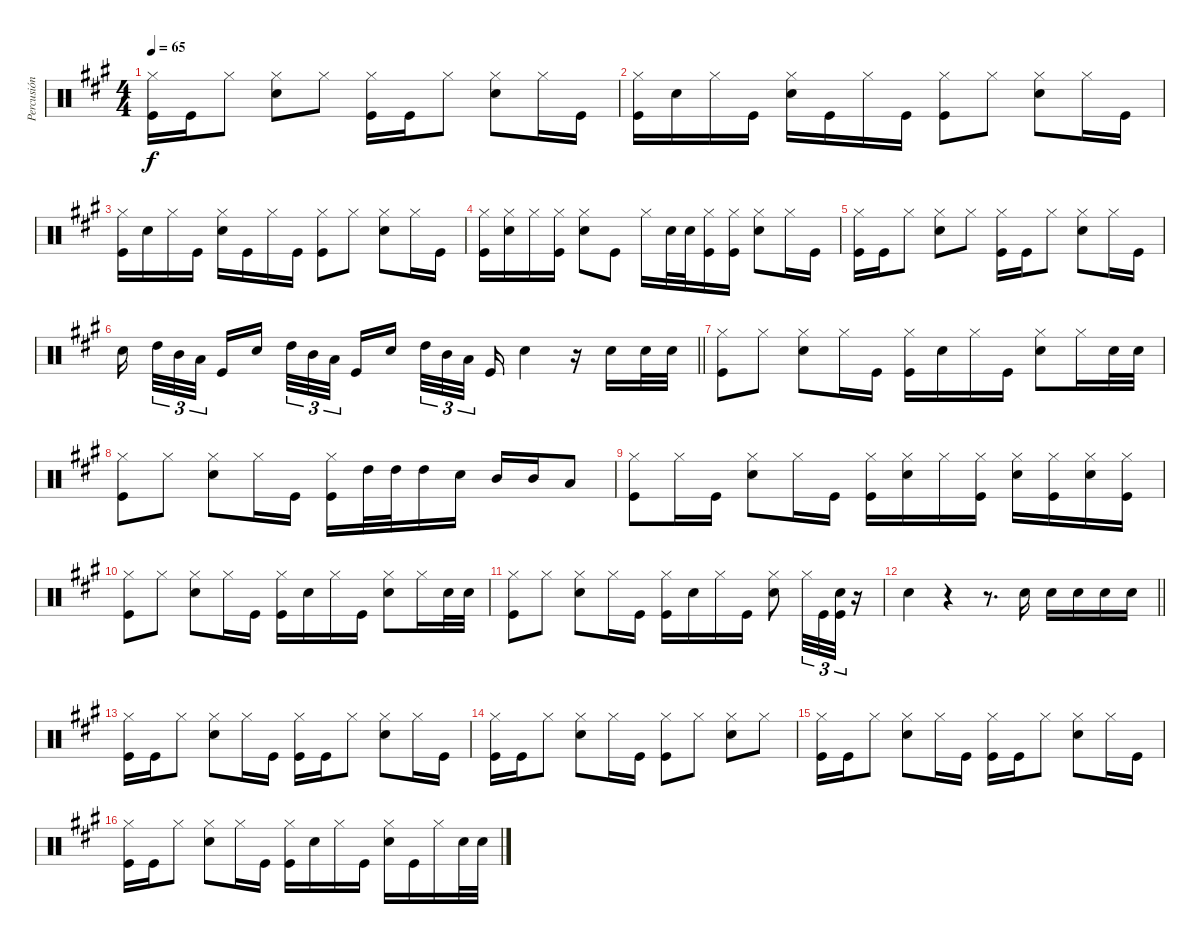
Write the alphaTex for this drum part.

\track ("Percusión" "Percusión") {instrument percussion}
\staff {score}
\articulation defaults
\ts (4 4)
\tempo 65
\clef neutral
\ks f#minor
("Hi-Hat (closed)" "Kick (hit)").16{dy f} "Kick (hit)".16 "Hi-Hat (closed)".8 ("Hi-Hat (closed)" "Snare (hit) 2").8 "Hi-Hat (closed)".8 ("Hi-Hat (closed)" "Kick (hit)").16 "Kick (hit)".16 "Hi-Hat (closed)".8 ("Hi-Hat (closed)" "Snare (hit) 2").8 "Hi-Hat (closed)".16 "Kick (hit)".16 |
("Hi-Hat (closed)" "Kick (hit)").16 "Snare (hit) 2".16 "Hi-Hat (closed)".16 "Kick (hit)".16 ("Hi-Hat (closed)" "Snare (hit) 2").16 "Kick (hit)".16 "Hi-Hat (closed)".16 "Kick (hit)".16 ("Hi-Hat (closed)" "Kick (hit)").8 "Hi-Hat (closed)".8 ("Hi-Hat (closed)" "Snare (hit) 2").8 "Hi-Hat (closed)".16 "Kick (hit)".16 |
("Hi-Hat (closed)" "Kick (hit)").16 "Snare (hit) 2".16 "Hi-Hat (closed)".16 "Kick (hit)".16 ("Hi-Hat (closed)" "Snare (hit) 2").16 "Kick (hit)".16 "Hi-Hat (closed)".16 "Kick (hit)".16 ("Hi-Hat (closed)" "Kick (hit)").8 "Hi-Hat (closed)".8 ("Hi-Hat (closed)" "Snare (hit) 2").8 "Hi-Hat (closed)".16 "Kick (hit)".16 |
("Hi-Hat (closed)" "Kick (hit)").16 ("Hi-Hat (closed)" "Snare (hit) 2").16 "Hi-Hat (closed)".16 ("Hi-Hat (closed)" "Kick (hit)").16 ("Hi-Hat (closed)" "Snare (hit) 2").8 "Kick (hit)".8 "Hi-Hat (closed)".16 "Snare (hit) 2".32 "Snare (hit) 2".32 ("Hi-Hat (closed)" "Kick (hit)").16 ("Hi-Hat (closed)" "Kick (hit)").16 ("Hi-Hat (closed)" "Snare (hit) 2").8 "Hi-Hat (closed)".16 "Kick (hit)".16 |
("Hi-Hat (closed)" "Kick (hit)").16 "Kick (hit)".16 "Hi-Hat (closed)".8 ("Hi-Hat (closed)" "Snare (hit) 2").8 "Hi-Hat (closed)".8 ("Hi-Hat (closed)" "Kick (hit)").16 "Kick (hit)".16 "Hi-Hat (closed)".8 ("Hi-Hat (closed)" "Snare (hit) 2").8 "Hi-Hat (closed)".16 "Kick (hit)".16 |
\barLineRight lightlight "Snare (hit) 2".16{beam splitsecondary} "High Tom (hit)".32{tu (3 2)} "Mid Tom (hit)".32{tu (3 2)} "Low Tom (hit)".32{tu (3 2) beam splitsecondary} "Kick (hit)".16 "Snare (hit) 2".16 "High Tom (hit)".32{tu (3 2)} "Mid Tom (hit)".32{tu (3 2)} "Low Tom (hit)".32{tu (3 2) beam splitsecondary} "Kick (hit)".16 "Snare (hit) 2".16{beam splitsecondary} "High Tom (hit)".32{tu (3 2)} "Mid Tom (hit)".32{tu (3 2)} "Low Tom (hit)".32{tu (3 2)} "Kick (hit)".16 "Snare (hit) 2".4
r.16 "Snare (hit) 2".16 "Snare (hit) 2".32 "Snare (hit) 2".32 |
("Hi-Hat (closed)" "Kick (hit)").8 "Hi-Hat (closed)".8 ("Hi-Hat (closed)" "Snare (hit) 2").8 "Hi-Hat (closed)".16 "Kick (hit)".16 ("Hi-Hat (closed)" "Kick (hit)").16 "Snare (hit) 2".16 "Hi-Hat (closed)".16 "Kick (hit)".16 ("Hi-Hat (closed)" "Snare (hit) 2").8 "Hi-Hat (closed)".16 "Snare (hit) 2".32 "Snare (hit) 2".32 |
("Hi-Hat (closed)" "Kick (hit)").8 "Hi-Hat (closed)".8 ("Hi-Hat (closed)" "Snare (hit) 2").8 "Hi-Hat (closed)".16 "Kick (hit)".16 ("Hi-Hat (closed)" "Kick (hit)").16 "High Tom (hit)".32 "High Tom (hit)".32 "High Tom (hit)".16 "Snare (hit) 2".16 "Mid Tom (hit)".16 "Mid Tom (hit)".16 "Low Tom (hit)".8 |
("Hi-Hat (closed)" "Kick (hit)").8 "Hi-Hat (closed)".16 "Kick (hit)".16 ("Hi-Hat (closed)" "Snare (hit) 2").8 "Hi-Hat (closed)".16 "Kick (hit)".16 ("Hi-Hat (closed)" "Kick (hit)").16 ("Hi-Hat (closed)" "Snare (hit) 2").16 "Hi-Hat (closed)".16 ("Hi-Hat (closed)" "Kick (hit)").16 ("Hi-Hat (closed)" "Snare (hit) 2").16 ("Hi-Hat (closed)" "Kick (hit)").16 ("Hi-Hat (closed)" "Snare (hit) 2").16 ("Hi-Hat (closed)" "Kick (hit)").16 |
("Hi-Hat (closed)" "Kick (hit)").8 "Hi-Hat (closed)".8 ("Hi-Hat (closed)" "Snare (hit) 2").8 "Hi-Hat (closed)".16 "Kick (hit)".16 ("Hi-Hat (closed)" "Kick (hit)").16 "Snare (hit) 2".16 "Hi-Hat (closed)".16 "Kick (hit)".16 ("Hi-Hat (closed)" "Snare (hit) 2").8 "Hi-Hat (closed)".16 "Snare (hit) 2".32 "Snare (hit) 2".32 |
("Hi-Hat (closed)" "Kick (hit)").8 "Hi-Hat (closed)".8 ("Hi-Hat (closed)" "Snare (hit) 2").8 "Hi-Hat (closed)".16 "Kick (hit)".16 ("Hi-Hat (closed)" "Kick (hit)").16 "Snare (hit) 2".16 "Hi-Hat (closed)".16 "Kick (hit)".16 ("Hi-Hat (closed)" "Snare (hit) 2").8 "Hi-Hat (closed)".32{tu (3 2)} "Kick (hit)".32{tu (3 2)} ("Snare (hit) 2" "Kick (hit)").32{tu (3 2)} r.16 |
\barLineRight lightlight "Snare (hit) 2".4
r.4 r.8{d} "Snare (hit) 2".16 "Snare (hit) 2".16 "Snare (hit) 2".16 "Snare (hit) 2".16 "Snare (hit) 2".16 |
("Hi-Hat (closed)" "Kick (hit)").16 "Kick (hit)".16 "Hi-Hat (closed)".8 ("Hi-Hat (closed)" "Snare (hit) 2").8 "Hi-Hat (closed)".16 "Kick (hit)".16 ("Hi-Hat (closed)" "Kick (hit)").16 "Kick (hit)".16 "Hi-Hat (closed)".8 ("Hi-Hat (closed)" "Snare (hit) 2").8 "Hi-Hat (closed)".16 "Kick (hit)".16 |
("Hi-Hat (closed)" "Kick (hit)").16 "Kick (hit)".16 "Hi-Hat (closed)".8 ("Hi-Hat (closed)" "Snare (hit) 2").8 "Hi-Hat (closed)".16 "Kick (hit)".16 ("Hi-Hat (closed)" "Kick (hit)").8 "Hi-Hat (closed)".8 ("Hi-Hat (closed)" "Snare (hit) 2").8 "Hi-Hat (closed)".8 |
("Hi-Hat (closed)" "Kick (hit)").16 "Kick (hit)".16 "Hi-Hat (closed)".8 ("Hi-Hat (closed)" "Snare (hit) 2").8 "Hi-Hat (closed)".16 "Kick (hit)".16 ("Hi-Hat (closed)" "Kick (hit)").16 "Kick (hit)".16 "Hi-Hat (closed)".8 ("Hi-Hat (closed)" "Snare (hit) 2").8 "Hi-Hat (closed)".16 "Kick (hit)".16 |
("Hi-Hat (closed)" "Kick (hit)").16 "Kick (hit)".16 "Hi-Hat (closed)".8 ("Hi-Hat (closed)" "Snare (hit) 2").8 "Hi-Hat (closed)".16 "Kick (hit)".16 ("Hi-Hat (closed)" "Kick (hit)").16 "Snare (hit) 2".16 "Hi-Hat (closed)".16 "Kick (hit)".16 ("Hi-Hat (closed)" "Snare (hit) 2").16 "Kick (hit)".16 "Hi-Hat (closed)".16 "Snare (hit) 2".32 "Snare (hit) 2".32
